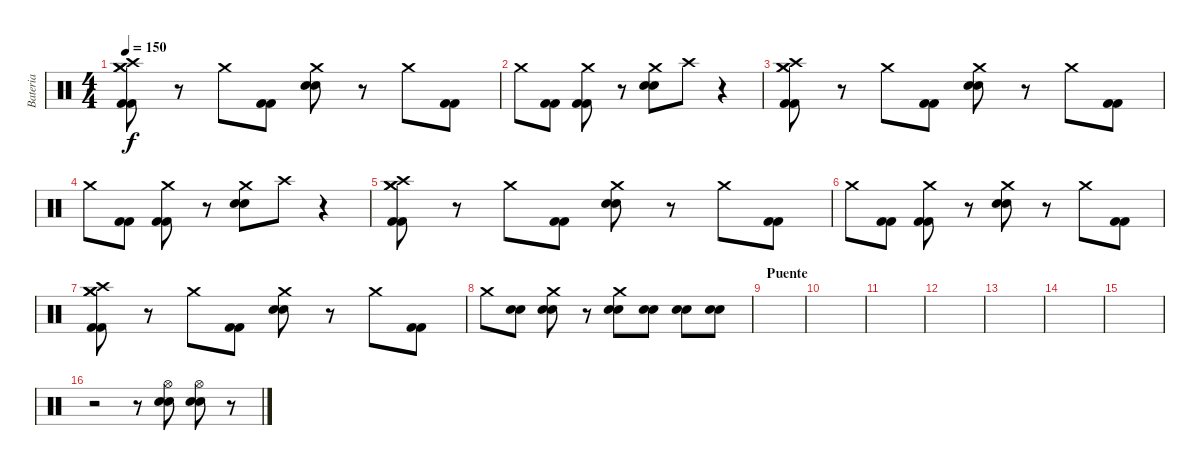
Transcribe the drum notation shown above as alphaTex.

\track ("Bateria" "Bateria") {instrument percussion}
\staff {score}
\articulation defaults
\ts (4 4)
\tempo 150
\clef neutral
\ks c
("Crash medium (hit)" "Crash high (hit)" "Crash medium (hit)" "Kick (hit) 2" "Kick (hit) 2").8{dy f} r.8 "Crash medium (hit)".8 ("Kick (hit) 2" "Kick (hit) 2").8 ("Crash medium (hit)" "Electric Snare (hit)" "Electric Snare (hit)").8 r.8 "Crash medium (hit)".8 ("Kick (hit) 2" "Kick (hit) 2").8 |
"Crash medium (hit)".8 ("Kick (hit) 2" "Kick (hit) 2").8 ("Crash medium (hit)" "Kick (hit) 2" "Kick (hit) 2").8 r.8 ("Crash medium (hit)" "Electric Snare (hit)" "Electric Snare (hit)").8 "Crash high (hit)".8 r.4 |
("Crash medium (hit)" "Crash high (hit)" "Crash medium (hit)" "Kick (hit) 2" "Kick (hit) 2").8 r.8 "Crash medium (hit)".8 ("Kick (hit) 2" "Kick (hit) 2").8 ("Crash medium (hit)" "Electric Snare (hit)" "Electric Snare (hit)").8 r.8 "Crash medium (hit)".8 ("Kick (hit) 2" "Kick (hit) 2").8 |
"Crash medium (hit)".8 ("Kick (hit) 2" "Kick (hit) 2").8 ("Crash medium (hit)" "Kick (hit) 2" "Kick (hit) 2").8 r.8 ("Crash medium (hit)" "Electric Snare (hit)" "Electric Snare (hit)").8 "Crash high (hit)".8 r.4 |
("Crash medium (hit)" "Crash high (hit)" "Crash medium (hit)" "Kick (hit) 2" "Kick (hit) 2").8 r.8 "Crash medium (hit)".8 ("Kick (hit) 2" "Kick (hit) 2").8 ("Crash medium (hit)" "Electric Snare (hit)" "Electric Snare (hit)").8 r.8 "Crash medium (hit)".8 ("Kick (hit) 2" "Kick (hit) 2").8 |
"Crash medium (hit)".8 ("Kick (hit) 2" "Kick (hit) 2").8 ("Crash medium (hit)" "Kick (hit) 2" "Kick (hit) 2").8 r.8 ("Crash medium (hit)" "Electric Snare (hit)" "Electric Snare (hit)").8 r.8 "Crash medium (hit)".8 ("Kick (hit) 2" "Kick (hit) 2").8 |
("Crash medium (hit)" "Crash high (hit)" "Crash medium (hit)" "Kick (hit) 2" "Kick (hit) 2").8 r.8 "Crash medium (hit)".8 ("Kick (hit) 2" "Kick (hit) 2").8 ("Crash medium (hit)" "Electric Snare (hit)" "Electric Snare (hit)").8 r.8 "Crash medium (hit)".8 ("Kick (hit) 2" "Kick (hit) 2").8 |
"Crash medium (hit)".8 ("Electric Snare (hit)" "Electric Snare (hit)").8 ("Crash medium (hit)" "Electric Snare (hit)" "Electric Snare (hit)").8 r.8 ("Crash medium (hit)" "Electric Snare (hit)" "Electric Snare (hit)").8 ("Electric Snare (hit)" "Electric Snare (hit)").8 ("Electric Snare (hit)" "Electric Snare (hit)").8 ("Electric Snare (hit)" "Electric Snare (hit)").8 |
\section ("" "Puente")
|
|
|
|
|
|
|
r.2 r.8 ("Hi-Hat (open)" "Electric Snare (hit)" "Electric Snare (hit)").8 ("Hi-Hat (open)" "Electric Snare (hit)" "Electric Snare (hit)").8 r.8
